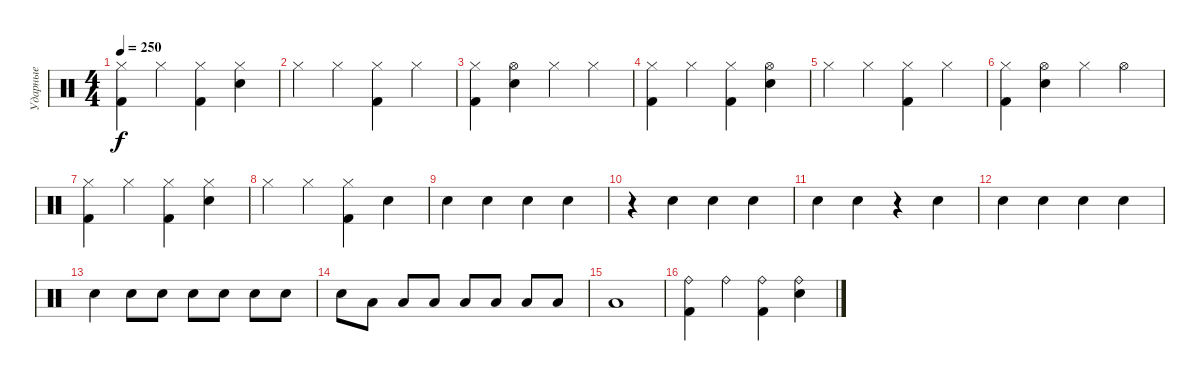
\track ("Ударные" "Ударные") {instrument percussion}
\staff {score}
\articulation defaults
\ts (4 4)
\tempo 250
\clef neutral
\ks c
("Hi-Hat (closed)" "Kick (hit) 2").4{dy f} "Hi-Hat (closed)".4 ("Hi-Hat (closed)" "Kick (hit) 2").4 ("Snare (hit) 2" "Hi-Hat (closed)").4 |
"Hi-Hat (closed)".4 "Hi-Hat (closed)".4 ("Hi-Hat (closed)" "Kick (hit) 2").4 "Hi-Hat (closed)".4 |
("Hi-Hat (closed)" "Kick (hit) 2").4 ("Snare (hit) 2" "Hi-Hat (open)").4 "Hi-Hat (closed)".4 "Hi-Hat (closed)".4 |
("Hi-Hat (closed)" "Kick (hit) 2").4 "Hi-Hat (closed)".4 ("Hi-Hat (closed)" "Kick (hit) 2").4 ("Snare (hit) 2" "Hi-Hat (open)").4 |
"Hi-Hat (closed)".4 "Hi-Hat (closed)".4 ("Hi-Hat (closed)" "Kick (hit) 2").4 "Hi-Hat (closed)".4 |
("Hi-Hat (closed)" "Kick (hit) 2").4 ("Snare (hit) 2" "Hi-Hat (open)").4 "Hi-Hat (closed)".4 "Hi-Hat (open)".4 |
("Hi-Hat (closed)" "Kick (hit) 2").4 "Hi-Hat (closed)".4 ("Hi-Hat (closed)" "Kick (hit) 2").4 ("Snare (hit) 2" "Hi-Hat (closed)").4 |
"Hi-Hat (closed)".4 "Hi-Hat (closed)".4 ("Hi-Hat (closed)" "Kick (hit) 2").4 "Snare (hit) 2".4 |
"Snare (hit) 2".4 "Snare (hit) 2".4 "Snare (hit) 2".4 "Snare (hit) 2".4 |
r.4 "Snare (hit) 2".4 "Snare (hit) 2".4 "Snare (hit) 2".4 |
"Snare (hit) 2".4 "Snare (hit) 2".4 r.4 "Snare (hit) 2".4 |
"Snare (hit) 2".4 "Snare (hit) 2".4 "Snare (hit) 2".4 "Snare (hit) 2".4 |
"Snare (hit) 2".4 "Snare (hit) 2".8 "Snare (hit) 2".8 "Snare (hit) 2".8 "Snare (hit) 2".8 "Snare (hit) 2".8 "Snare (hit) 2".8 |
"Snare (hit) 2".8 "Low Tom (hit)".8 "Low Tom (hit)".8 "Low Tom (hit)".8 "Low Tom (hit)".8 "Low Tom (hit)".8 "Low Tom (hit)".8 "Low Tom (hit)".8 |
"Low Tom (hit)".1 |
("Ride (bell)" "Kick (hit) 2").4 "Ride (bell)".4 ("Ride (bell)" "Kick (hit) 2").4 ("Snare (hit) 2" "Ride (bell)").4
